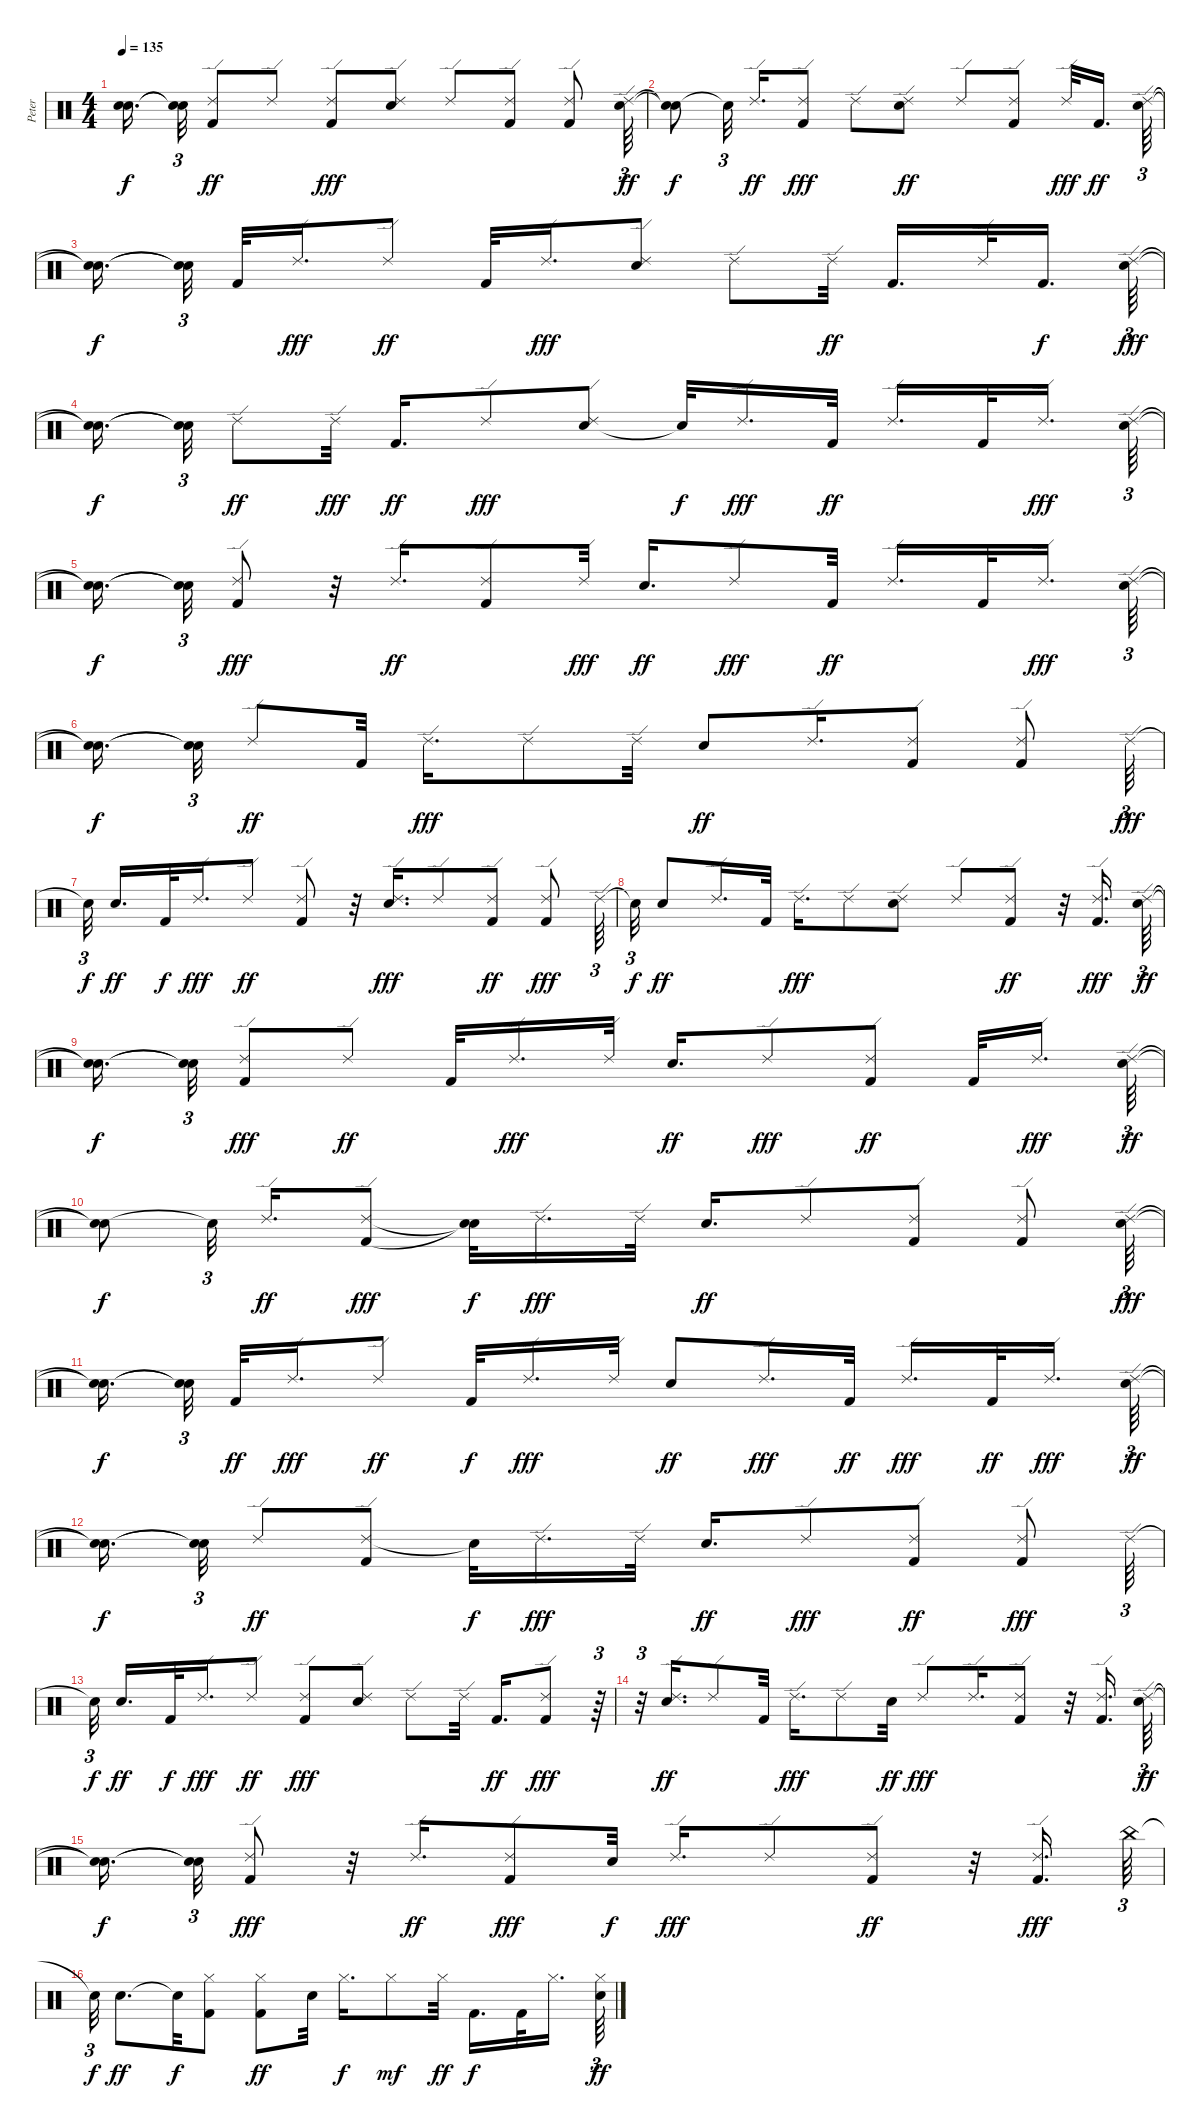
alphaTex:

\track ("Peter" "Peter") {instrument percussion}
\staff {score}
\articulation defaults
\ts (4 4)
\tempo 135
\clef neutral
\ks c
("Snare (hit)"{t} "Snare (hit)"{t}).16{d dy f} ("Snare (hit)"{t} "Snare (hit)"{t}).32{tu (3 2)} ("Ride (edge) 2" "Kick (hit) 2").8{dy ff} "Ride (edge) 2".8 ("Ride (edge) 2" "Kick (hit) 2").8{dy fff} ("Electric Snare (hit)" "Ride (edge) 2").8 "Ride (edge) 2".8 ("Kick (hit) 2" "Ride (edge) 2").8 ("Kick (hit) 2" "Ride (edge) 2").8 ("Ride (edge) 2" "Electric Snare (hit)").64{tu (3 2) dy ff} |
("Snare (hit)"{t} "Snare (hit)"{t}).8{dy f} "Snare (hit)"{t}.32{tu (3 2)} "Ride (edge) 2".16{d dy ff} ("Kick (hit) 2" "Ride (edge) 2").8{dy fff} "Ride (edge) 2".8 ("Electric Snare (hit)" "Ride (edge) 2").8{dy ff} "Ride (edge) 2".8 ("Kick (hit) 2" "Ride (edge) 2").8 "Ride (edge) 2".32{dy fff} "Kick (hit) 2".16{d dy ff} ("Electric Snare (hit)" "Ride (edge) 2").64{tu (3 2)} |
("Snare (hit)"{t} "Snare (hit)"{t}).16{d dy f} ("Snare (hit)"{t} "Snare (hit)"{t}).32{tu (3 2)} "Kick (hit) 2".32 "Ride (edge) 2".16{d dy fff} "Ride (edge) 2".8{dy ff} "Kick (hit) 2".32 "Ride (edge) 2".16{d dy fff} ("Ride (edge) 2" "Electric Snare (hit)").8 "Ride (edge) 2".8 "Ride (edge) 2".32{dy ff} "Kick (hit) 2".16{d} "Ride (edge) 2".32 "Kick (hit) 2".16{d dy f} ("Electric Snare (hit)" "Ride (edge) 2").64{tu (3 2) dy fff} |
("Snare (hit)"{t} "Snare (hit)"{t}).16{d dy f} ("Snare (hit)"{t} "Snare (hit)"{t}).32{tu (3 2)} "Ride (edge) 2".8{dy ff} "Ride (edge) 2".32{dy fff} "Kick (hit) 2".16{d dy ff} "Ride (edge) 2".8{dy fff} ("Electric Snare (hit)" "Ride (edge) 2").8 "Snare (hit)"{t}.32{dy f} "Ride (edge) 2".16{d dy fff} "Kick (hit) 2".32{dy ff} "Ride (edge) 2".16{d} "Kick (hit) 2".32 "Ride (edge) 2".16{d dy fff} ("Electric Snare (hit)" "Ride (edge) 2").64{tu (3 2)} |
("Snare (hit)"{t} "Snare (hit)"{t}).16{d dy f} ("Snare (hit)"{t} "Snare (hit)"{t}).32{tu (3 2)} ("Kick (hit) 2" "Ride (edge) 2").8{dy fff} r.32 "Ride (edge) 2".16{d dy ff} ("Kick (hit) 2" "Ride (edge) 2").8 "Ride (edge) 2".32{dy fff} "Electric Snare (hit)".16{d dy ff} "Ride (edge) 2".8{dy fff} "Kick (hit) 2".32{dy ff} "Ride (edge) 2".16{d} "Kick (hit) 2".32 "Ride (edge) 2".16{d dy fff} ("Electric Snare (hit)" "Ride (edge) 2").64{tu (3 2)} |
("Snare (hit)"{t} "Snare (hit)"{t}).16{d dy f} ("Snare (hit)"{t} "Snare (hit)"{t}).32{tu (3 2)} "Ride (edge) 2".8{dy ff} "Kick (hit) 2".32 "Ride (edge) 2".16{d dy fff} "Ride (edge) 2".8 "Ride (edge) 2".32 "Electric Snare (hit)".8{dy ff} "Ride (edge) 2".16{d} ("Ride (edge) 2" "Kick (hit) 2").8 ("Ride (edge) 2" "Kick (hit) 2").8 "Ride (edge) 2".64{tu (3 2) dy fff} |
"Snare (hit)"{t}.32{tu (3 2) dy f} "Electric Snare (hit)".16{d dy ff} "Kick (hit) 2".32{dy f} "Ride (edge) 2".16{d dy fff} "Ride (edge) 2".8{dy ff} ("Ride (edge) 2" "Kick (hit) 2").8 r.32 ("Electric Snare (hit)" "Ride (edge) 2").16{d dy fff} "Ride (edge) 2".8 ("Kick (hit) 2" "Ride (edge) 2").8{dy ff} ("Kick (hit) 2" "Ride (edge) 2").8{dy fff} "Ride (edge) 2".64{tu (3 2)} |
"Snare (hit)"{t}.32{tu (3 2) dy f} "Electric Snare (hit)".8{dy ff} "Ride (edge) 2".16{d} "Kick (hit) 2".32 "Ride (edge) 2".16{d dy fff} "Ride (edge) 2".8 ("Ride (edge) 2" "Electric Snare (hit)").8 "Ride (edge) 2".8 ("Kick (hit) 2" "Ride (edge) 2").8{dy ff} r.32 ("Ride (edge) 2" "Kick (hit) 2").16{d dy fff} ("Ride (edge) 2" "Electric Snare (hit)").64{tu (3 2) dy ff} |
("Snare (hit)"{t} "Snare (hit)"{t}).16{d dy f} ("Snare (hit)"{t} "Snare (hit)"{t}).32{tu (3 2)} ("Kick (hit) 2" "Ride (edge) 2").8{dy fff} "Ride (edge) 2".8{dy ff} "Kick (hit) 2".32 "Ride (edge) 2".16{d dy fff} "Ride (edge) 2".32 "Electric Snare (hit)".16{d dy ff} "Ride (edge) 2".8{dy fff} ("Kick (hit) 2" "Ride (edge) 2").8{dy ff} "Kick (hit) 2".32 "Ride (edge) 2".16{d dy fff} ("Ride (edge) 2" "Electric Snare (hit)").64{tu (3 2) dy ff} |
("Snare (hit)"{t} "Snare (hit)"{t}).8{dy f} "Snare (hit)"{t}.32{tu (3 2)} "Ride (edge) 2".16{d dy ff} ("Kick (hit) 2" "Ride (edge) 2").8{dy fff} ("Snare (hit)"{t} "Snare (hit)"{t}).32{dy f} "Ride (edge) 2".16{d dy fff} "Ride (edge) 2".32 "Electric Snare (hit)".16{d dy ff} "Ride (edge) 2".8 ("Kick (hit) 2" "Ride (edge) 2").8 ("Ride (edge) 2" "Kick (hit) 2").8 ("Electric Snare (hit)" "Ride (edge) 2").64{tu (3 2) dy fff} |
("Snare (hit)"{t} "Snare (hit)"{t}).16{d dy f} ("Snare (hit)"{t} "Snare (hit)"{t}).32{tu (3 2)} "Kick (hit) 2".32{dy ff} "Ride (edge) 2".16{d dy fff} "Ride (edge) 2".8{dy ff} "Kick (hit) 2".32{dy f} "Ride (edge) 2".16{d dy fff} "Ride (edge) 2".32 "Electric Snare (hit)".8{dy ff} "Ride (edge) 2".16{d dy fff} "Kick (hit) 2".32{dy ff} "Ride (edge) 2".16{d dy fff} "Kick (hit) 2".32{dy ff} "Ride (edge) 2".16{d dy fff} ("Ride (edge) 2" "Electric Snare (hit)").64{tu (3 2) dy ff} |
("Snare (hit)"{t} "Snare (hit)"{t}).16{d dy f} ("Snare (hit)"{t} "Snare (hit)"{t}).32{tu (3 2)} "Ride (edge) 2".8{dy ff} ("Ride (edge) 2" "Kick (hit) 2").8 "Snare (hit)"{t}.32{dy f} "Ride (edge) 2".16{d dy fff} "Ride (edge) 2".32 "Electric Snare (hit)".16{d dy ff} "Ride (edge) 2".8{dy fff} ("Kick (hit) 2" "Ride (edge) 2").8{dy ff} ("Kick (hit) 2" "Ride (edge) 2").8{dy fff} "Ride (edge) 2".64{tu (3 2)} |
"Snare (hit)"{t}.32{tu (3 2) dy f} "Electric Snare (hit)".16{d dy ff} "Kick (hit) 2".32{dy f} "Ride (edge) 2".16{d dy fff} "Ride (edge) 2".8{dy ff} ("Kick (hit) 2" "Ride (edge) 2").8{dy fff} ("Electric Snare (hit)" "Ride (edge) 2").8 "Ride (edge) 2".8 "Ride (edge) 2".32 "Kick (hit) 2".16{d dy ff} ("Ride (edge) 2" "Kick (hit) 2").8{dy fff} r.64{tu (3 2)} |
r.32{tu (3 2)} ("Ride (edge) 2" "Electric Snare (hit)").16{d dy ff} "Ride (edge) 2".8 "Kick (hit) 2".32 "Ride (edge) 2".16{d dy fff} "Ride (edge) 2".8 "Electric Snare (hit)".32{dy ff} "Ride (edge) 2".8{dy fff} "Ride (edge) 2".16{d} ("Kick (hit) 2" "Ride (edge) 2").8 r.32 ("Kick (hit) 2" "Ride (edge) 2").16{d} ("Ride (edge) 2" "Electric Snare (hit)").64{tu (3 2) dy ff} |
("Snare (hit)"{t} "Snare (hit)"{t}).16{d dy f} ("Snare (hit)"{t} "Snare (hit)"{t}).32{tu (3 2)} ("Kick (hit) 2" "Ride (edge) 2").8{dy fff} r.32 "Ride (edge) 2".16{d dy ff} ("Kick (hit) 2" "Ride (edge) 2").8{dy fff} "Electric Snare (hit)".32{dy f} "Ride (edge) 2".16{d dy fff} "Ride (edge) 2".8 ("Kick (hit) 2" "Ride (edge) 2").8{dy ff} r.32 ("Kick (hit) 2" "Ride (edge) 2").16{d dy fff} "China (hit)".64{tu (3 2)} |
"Snare (hit)"{t}.32{tu (3 2) dy f} "Electric Snare (hit)".8{d dy ff} "Snare (hit)"{t}.32{dy f} ("Kick (hit) 2" "Hi-Hat (closed)").8 ("Kick (hit) 2" "Hi-Hat (closed)").8{dy ff} "Electric Snare (hit)".32 "Hi-Hat (closed)".16{d dy f} "Hi-Hat (closed)".8{dy mf} "Hi-Hat (closed)".32{dy ff} "Kick (hit) 2".16{d dy f} "Kick (hit) 2".32 "Hi-Hat (closed)".16{d} ("Hi-Hat (closed)" "Electric Snare (hit)").64{tu (3 2) dy ff}
